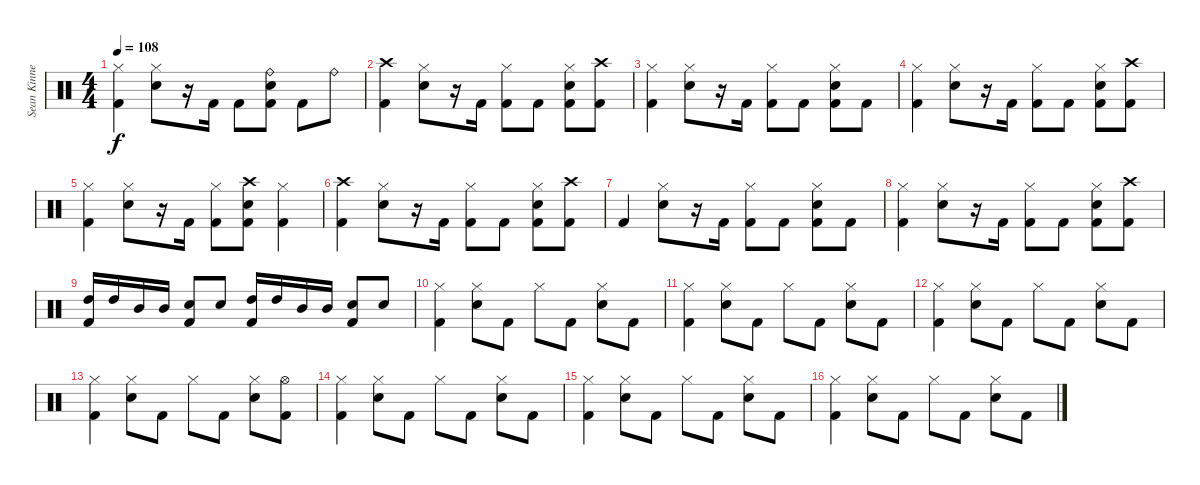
\track ("Sean Kinney- Drums" "Sean Kinne") {instrument percussion}
\staff {score}
\articulation defaults
\ts (4 4)
\tempo 108
\clef neutral
\ks c
("Hi-Hat (closed)" "Kick (hit) 2").4{dy f} ("Hi-Hat (closed)" "Electric Snare (hit)").8 r.16 "Kick (hit) 2".16 "Kick (hit) 2".8 ("Ride (bell)" "Electric Snare (hit)" "Kick (hit) 2").8 "Kick (hit) 2".8 "Ride (bell)".8 |
("Crash high (hit)" "Kick (hit) 2").4 ("Hi-Hat (closed)" "Electric Snare (hit)").8 r.16 "Kick (hit) 2".16 ("Hi-Hat (closed)" "Kick (hit) 2").8 "Kick (hit) 2".8 ("Hi-Hat (closed)" "Electric Snare (hit)" "Kick (hit) 2").8 ("Crash high (hit)" "Kick (hit) 2").8 |
("Hi-Hat (closed)" "Kick (hit) 2").4 ("Hi-Hat (closed)" "Electric Snare (hit)").8 r.16 "Kick (hit) 2".16 ("Hi-Hat (closed)" "Kick (hit) 2").8 "Kick (hit) 2".8 ("Hi-Hat (closed)" "Electric Snare (hit)" "Kick (hit) 2").8 "Kick (hit) 2".8 |
("Hi-Hat (closed)" "Kick (hit) 2").4 ("Hi-Hat (closed)" "Electric Snare (hit)").8 r.16 "Kick (hit) 2".16 ("Hi-Hat (closed)" "Kick (hit) 2").8 "Kick (hit) 2".8 ("Hi-Hat (closed)" "Electric Snare (hit)" "Kick (hit) 2").8 ("Crash high (hit)" "Kick (hit) 2").8 |
("Hi-Hat (closed)" "Kick (hit) 2").4 ("Hi-Hat (closed)" "Electric Snare (hit)").8 r.16 "Kick (hit) 2".16 ("Hi-Hat (closed)" "Kick (hit) 2").8 ("Crash high (hit)" "Electric Snare (hit)" "Kick (hit) 2").8 ("Hi-Hat (closed)" "Kick (hit) 2").4 |
("Crash high (hit)" "Kick (hit) 2").4 ("Hi-Hat (closed)" "Electric Snare (hit)").8 r.16 "Kick (hit) 2".16 ("Hi-Hat (closed)" "Kick (hit) 2").8 "Kick (hit) 2".8 ("Hi-Hat (closed)" "Electric Snare (hit)" "Kick (hit) 2").8 ("Crash high (hit)" "Kick (hit) 2").8 |
"Kick (hit) 2".4 ("Hi-Hat (closed)" "Electric Snare (hit)").8 r.16 "Kick (hit) 2".16 ("Hi-Hat (closed)" "Kick (hit) 2").8 "Kick (hit) 2".8 ("Hi-Hat (closed)" "Electric Snare (hit)" "Kick (hit) 2").8 "Kick (hit) 2".8 |
("Hi-Hat (closed)" "Kick (hit) 2").4 ("Hi-Hat (closed)" "Electric Snare (hit)").8 r.16 "Kick (hit) 2".16 ("Hi-Hat (closed)" "Kick (hit) 2").8 "Kick (hit) 2".8 ("Hi-Hat (closed)" "Electric Snare (hit)" "Kick (hit) 2").8 ("Crash high (hit)" "Kick (hit) 2").8 |
("High Tom (hit)" "Kick (hit) 2").16 "High Tom (hit)".16 "Mid Tom (hit)".16 "Mid Tom (hit)".16 ("Electric Snare (hit)" "Kick (hit) 2").8 "Electric Snare (hit)".8 ("High Tom (hit)" "Kick (hit) 2").16 "High Tom (hit)".16 "Mid Tom (hit)".16 "Mid Tom (hit)".16 ("Electric Snare (hit)" "Kick (hit) 2").8 "Electric Snare (hit)".8 |
("Hi-Hat (closed)" "Kick (hit) 2").4 ("Hi-Hat (closed)" "Electric Snare (hit)").8 "Kick (hit) 2".8 "Hi-Hat (closed)".8 "Kick (hit) 2".8 ("Hi-Hat (closed)" "Electric Snare (hit)").8 "Kick (hit) 2".8 |
("Hi-Hat (closed)" "Kick (hit) 2").4 ("Hi-Hat (closed)" "Electric Snare (hit)").8 "Kick (hit) 2".8 "Hi-Hat (closed)".8 "Kick (hit) 2".8 ("Hi-Hat (closed)" "Electric Snare (hit)").8 "Kick (hit) 2".8 |
("Hi-Hat (closed)" "Kick (hit) 2").4 ("Hi-Hat (closed)" "Electric Snare (hit)").8 "Kick (hit) 2".8 "Hi-Hat (closed)".8 "Kick (hit) 2".8 ("Hi-Hat (closed)" "Electric Snare (hit)").8 "Kick (hit) 2".8 |
("Hi-Hat (closed)" "Kick (hit) 2").4 ("Hi-Hat (closed)" "Electric Snare (hit)").8 "Kick (hit) 2".8 "Hi-Hat (closed)".8 "Kick (hit) 2".8 ("Hi-Hat (closed)" "Electric Snare (hit)").8 ("Hi-Hat (open)" "Kick (hit) 2").8 |
("Hi-Hat (closed)" "Kick (hit) 2").4 ("Hi-Hat (closed)" "Electric Snare (hit)").8 "Kick (hit) 2".8 "Hi-Hat (closed)".8 "Kick (hit) 2".8 ("Hi-Hat (closed)" "Electric Snare (hit)").8 "Kick (hit) 2".8 |
("Hi-Hat (closed)" "Kick (hit) 2").4 ("Hi-Hat (closed)" "Electric Snare (hit)").8 "Kick (hit) 2".8 "Hi-Hat (closed)".8 "Kick (hit) 2".8 ("Hi-Hat (closed)" "Electric Snare (hit)").8 "Kick (hit) 2".8 |
("Hi-Hat (closed)" "Kick (hit) 2").4 ("Hi-Hat (closed)" "Electric Snare (hit)").8 "Kick (hit) 2".8 "Hi-Hat (closed)".8 "Kick (hit) 2".8 ("Hi-Hat (closed)" "Electric Snare (hit)").8 "Kick (hit) 2".8
